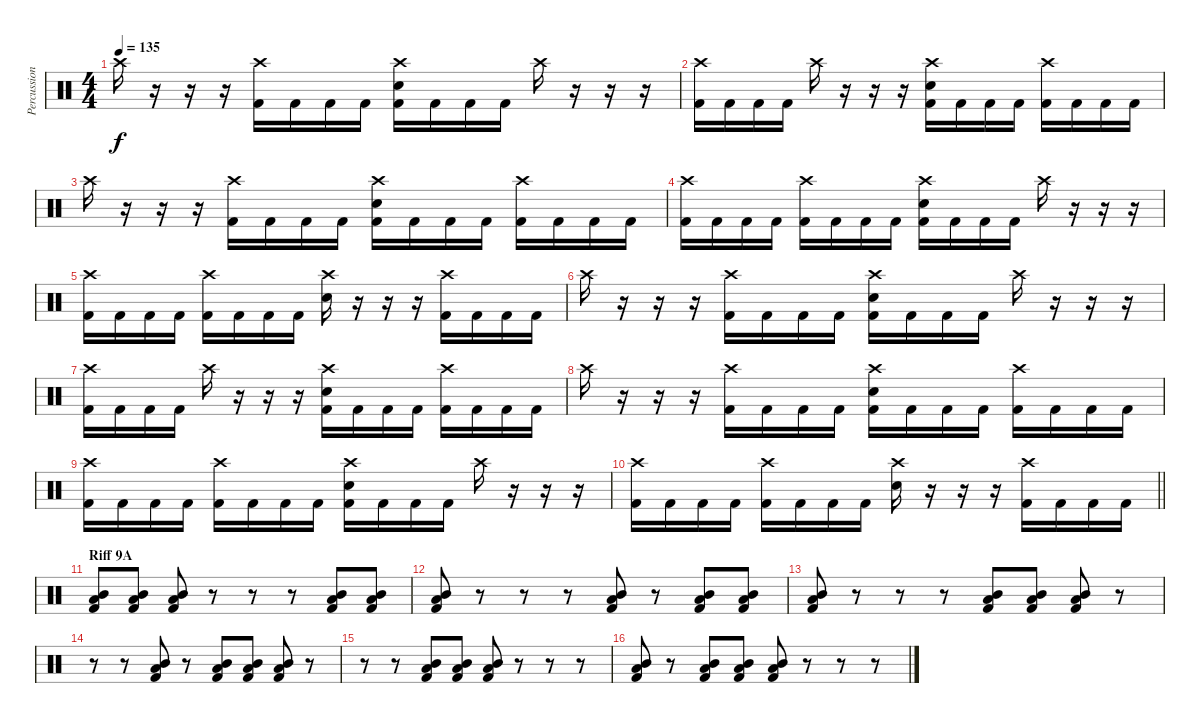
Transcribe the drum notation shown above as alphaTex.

\track ("Percussion" "Percussion") {instrument percussion}
\staff {score}
\articulation defaults
\ts (4 4)
\tempo 135
\clef neutral
\ks c "Crash high (hit)".16{dy f}
r.16 r.16 r.16 ("Crash high (hit)" "Kick (hit) 2").16 "Kick (hit) 2".16 "Kick (hit) 2".16 "Kick (hit) 2".16 ("Crash high (hit)" "Snare (hit) 2" "Kick (hit) 2").16 "Kick (hit) 2".16 "Kick (hit) 2".16 "Kick (hit) 2".16 "Crash high (hit)".16 r.16 r.16 r.16 |
("Crash high (hit)" "Kick (hit) 2").16 "Kick (hit) 2".16 "Kick (hit) 2".16 "Kick (hit) 2".16 "Crash high (hit)".16 r.16 r.16 r.16 ("Crash high (hit)" "Snare (hit) 2" "Kick (hit) 2").16 "Kick (hit) 2".16 "Kick (hit) 2".16 "Kick (hit) 2".16 ("Crash high (hit)" "Kick (hit) 2").16 "Kick (hit) 2".16 "Kick (hit) 2".16 "Kick (hit) 2".16 |
"Crash high (hit)".16 r.16 r.16 r.16 ("Crash high (hit)" "Kick (hit) 2").16 "Kick (hit) 2".16 "Kick (hit) 2".16 "Kick (hit) 2".16 ("Crash high (hit)" "Snare (hit) 2" "Kick (hit) 2").16 "Kick (hit) 2".16 "Kick (hit) 2".16 "Kick (hit) 2".16 ("Crash high (hit)" "Kick (hit) 2").16 "Kick (hit) 2".16 "Kick (hit) 2".16 "Kick (hit) 2".16 |
("Crash high (hit)" "Kick (hit) 2").16 "Kick (hit) 2".16 "Kick (hit) 2".16 "Kick (hit) 2".16 ("Crash high (hit)" "Kick (hit) 2").16 "Kick (hit) 2".16 "Kick (hit) 2".16 "Kick (hit) 2".16 ("Crash high (hit)" "Snare (hit) 2" "Kick (hit) 2").16 "Kick (hit) 2".16 "Kick (hit) 2".16 "Kick (hit) 2".16 "Crash high (hit)".16 r.16 r.16 r.16 |
("Crash high (hit)" "Kick (hit) 2").16 "Kick (hit) 2".16 "Kick (hit) 2".16 "Kick (hit) 2".16 ("Crash high (hit)" "Kick (hit) 2").16 "Kick (hit) 2".16 "Kick (hit) 2".16 "Kick (hit) 2".16 ("Crash high (hit)" "Snare (hit) 2").16 r.16 r.16 r.16 ("Crash high (hit)" "Kick (hit) 2").16 "Kick (hit) 2".16 "Kick (hit) 2".16 "Kick (hit) 2".16 |
"Crash high (hit)".16 r.16 r.16 r.16 ("Crash high (hit)" "Kick (hit) 2").16 "Kick (hit) 2".16 "Kick (hit) 2".16 "Kick (hit) 2".16 ("Crash high (hit)" "Snare (hit) 2" "Kick (hit) 2").16 "Kick (hit) 2".16 "Kick (hit) 2".16 "Kick (hit) 2".16 "Crash high (hit)".16 r.16 r.16 r.16 |
("Crash high (hit)" "Kick (hit) 2").16 "Kick (hit) 2".16 "Kick (hit) 2".16 "Kick (hit) 2".16 "Crash high (hit)".16 r.16 r.16 r.16 ("Crash high (hit)" "Snare (hit) 2" "Kick (hit) 2").16 "Kick (hit) 2".16 "Kick (hit) 2".16 "Kick (hit) 2".16 ("Crash high (hit)" "Kick (hit) 2").16 "Kick (hit) 2".16 "Kick (hit) 2".16 "Kick (hit) 2".16 |
"Crash high (hit)".16 r.16 r.16 r.16 ("Crash high (hit)" "Kick (hit) 2").16 "Kick (hit) 2".16 "Kick (hit) 2".16 "Kick (hit) 2".16 ("Crash high (hit)" "Snare (hit) 2" "Kick (hit) 2").16 "Kick (hit) 2".16 "Kick (hit) 2".16 "Kick (hit) 2".16 ("Crash high (hit)" "Kick (hit) 2").16 "Kick (hit) 2".16 "Kick (hit) 2".16 "Kick (hit) 2".16 |
("Crash high (hit)" "Kick (hit) 2").16 "Kick (hit) 2".16 "Kick (hit) 2".16 "Kick (hit) 2".16 ("Crash high (hit)" "Kick (hit) 2").16 "Kick (hit) 2".16 "Kick (hit) 2".16 "Kick (hit) 2".16 ("Crash high (hit)" "Snare (hit) 2" "Kick (hit) 2").16 "Kick (hit) 2".16 "Kick (hit) 2".16 "Kick (hit) 2".16 "Crash high (hit)".16 r.16 r.16 r.16 |
\barLineRight lightlight
("Crash high (hit)" "Kick (hit) 2").16 "Kick (hit) 2".16 "Kick (hit) 2".16 "Kick (hit) 2".16 ("Crash high (hit)" "Kick (hit) 2").16 "Kick (hit) 2".16 "Kick (hit) 2".16 "Kick (hit) 2".16 ("Crash high (hit)" "Snare (hit) 2").16 r.16 r.16 r.16 ("Crash high (hit)" "Kick (hit) 2").16 "Kick (hit) 2".16 "Kick (hit) 2".16 "Kick (hit) 2".16 |
\section ("" "Riff 9A")
("Mid Tom (hit)" "Low Tom (hit)" "Kick (hit) 2").8 ("Mid Tom (hit)" "Low Tom (hit)" "Kick (hit) 2").8 ("Mid Tom (hit)" "Low Tom (hit)" "Kick (hit) 2").8 r.8 r.8 r.8 ("Mid Tom (hit)" "Low Tom (hit)" "Kick (hit) 2").8 ("Mid Tom (hit)" "Low Tom (hit)" "Kick (hit) 2").8 |
("Mid Tom (hit)" "Low Tom (hit)" "Kick (hit) 2").8 r.8 r.8 r.8 ("Mid Tom (hit)" "Low Tom (hit)" "Kick (hit) 2").8 r.8 ("Mid Tom (hit)" "Low Tom (hit)" "Kick (hit) 2").8 ("Mid Tom (hit)" "Low Tom (hit)" "Kick (hit) 2").8 |
("Mid Tom (hit)" "Low Tom (hit)" "Kick (hit) 2").8 r.8 r.8 r.8 ("Mid Tom (hit)" "Low Tom (hit)" "Kick (hit) 2").8 ("Mid Tom (hit)" "Low Tom (hit)" "Kick (hit) 2").8 ("Mid Tom (hit)" "Low Tom (hit)" "Kick (hit) 2").8 r.8 |
r.8 r.8 ("Mid Tom (hit)" "Low Tom (hit)" "Kick (hit) 2").8 r.8 ("Mid Tom (hit)" "Low Tom (hit)" "Kick (hit) 2").8 ("Mid Tom (hit)" "Low Tom (hit)" "Kick (hit) 2").8 ("Mid Tom (hit)" "Low Tom (hit)" "Kick (hit) 2").8 r.8 |
r.8 r.8 ("Mid Tom (hit)" "Low Tom (hit)" "Kick (hit) 2").8 ("Mid Tom (hit)" "Low Tom (hit)" "Kick (hit) 2").8 ("Mid Tom (hit)" "Low Tom (hit)" "Kick (hit) 2").8 r.8 r.8 r.8 |
("Mid Tom (hit)" "Low Tom (hit)" "Kick (hit) 2").8 r.8 ("Mid Tom (hit)" "Low Tom (hit)" "Kick (hit) 2").8 ("Mid Tom (hit)" "Low Tom (hit)" "Kick (hit) 2").8 ("Mid Tom (hit)" "Low Tom (hit)" "Kick (hit) 2").8 r.8 r.8 r.8
